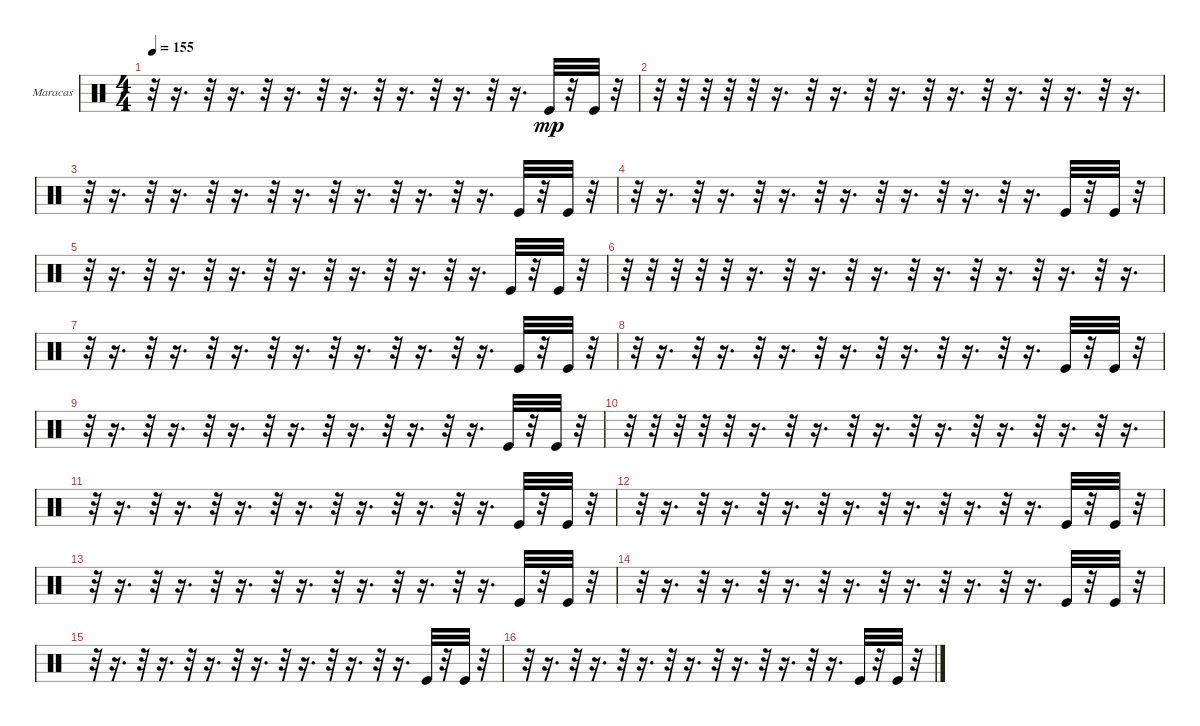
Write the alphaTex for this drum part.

\bracketExtendMode groupsimilarinstruments
\firstSystemTrackNameOrientation horizontal
\otherSystemsTrackNameOrientation horizontal
\track ("Е. Кулаков" "Maracas") {instrument percussion}
\staff {score}
\articulation defaults
\ts (4 4)
\tempo 155
\clef neutral
\ks c
r.32{dy mp} r.16{d} r.32 r.16{d} r.32 r.16{d} r.32 r.16{d} r.32 r.16{d} r.32 r.16{d} r.32 r.16{d} "Kick (hit)".32 r.32 "Kick (hit)".32 r.32 |
r.32 r.32 r.32 r.32 r.32 r.16{d} r.32 r.16{d} r.32 r.16{d} r.32 r.16{d} r.32 r.16{d} r.32 r.16{d} r.32 r.16{d} |
r.32 r.16{d} r.32 r.16{d} r.32 r.16{d} r.32 r.16{d} r.32 r.16{d} r.32 r.16{d} r.32 r.16{d} "Kick (hit)".32 r.32 "Kick (hit)".32 r.32 |
r.32 r.16{d} r.32 r.16{d} r.32 r.16{d} r.32 r.16{d} r.32 r.16{d} r.32 r.16{d} r.32 r.16{d} "Kick (hit)".32 r.32 "Kick (hit)".32 r.32 |
r.32 r.16{d} r.32 r.16{d} r.32 r.16{d} r.32 r.16{d} r.32 r.16{d} r.32 r.16{d} r.32 r.16{d} "Kick (hit)".32 r.32 "Kick (hit)".32 r.32 |
r.32 r.32 r.32 r.32 r.32 r.16{d} r.32 r.16{d} r.32 r.16{d} r.32 r.16{d} r.32 r.16{d} r.32 r.16{d} r.32 r.16{d} |
r.32 r.16{d} r.32 r.16{d} r.32 r.16{d} r.32 r.16{d} r.32 r.16{d} r.32 r.16{d} r.32 r.16{d} "Kick (hit)".32 r.32 "Kick (hit)".32 r.32 |
r.32 r.16{d} r.32 r.16{d} r.32 r.16{d} r.32 r.16{d} r.32 r.16{d} r.32 r.16{d} r.32 r.16{d} "Kick (hit)".32 r.32 "Kick (hit)".32 r.32 |
r.32 r.16{d} r.32 r.16{d} r.32 r.16{d} r.32 r.16{d} r.32 r.16{d} r.32 r.16{d} r.32 r.16{d} "Kick (hit)".32 r.32 "Kick (hit)".32 r.32 |
r.32 r.32 r.32 r.32 r.32 r.16{d} r.32 r.16{d} r.32 r.16{d} r.32 r.16{d} r.32 r.16{d} r.32 r.16{d} r.32 r.16{d} |
r.32 r.16{d} r.32 r.16{d} r.32 r.16{d} r.32 r.16{d} r.32 r.16{d} r.32 r.16{d} r.32 r.16{d} "Kick (hit)".32 r.32 "Kick (hit)".32 r.32 |
r.32 r.16{d} r.32 r.16{d} r.32 r.16{d} r.32 r.16{d} r.32 r.16{d} r.32 r.16{d} r.32 r.16{d} "Kick (hit)".32 r.32 "Kick (hit)".32 r.32 |
r.32 r.16{d} r.32 r.16{d} r.32 r.16{d} r.32 r.16{d} r.32 r.16{d} r.32 r.16{d} r.32 r.16{d} "Kick (hit)".32 r.32 "Kick (hit)".32 r.32 |
r.32 r.16{d} r.32 r.16{d} r.32 r.16{d} r.32 r.16{d} r.32 r.16{d} r.32 r.16{d} r.32 r.16{d} "Kick (hit)".32 r.32 "Kick (hit)".32 r.32 |
r.32 r.16{d} r.32 r.16{d} r.32 r.16{d} r.32 r.16{d} r.32 r.16{d} r.32 r.16{d} r.32 r.16{d} "Kick (hit)".32 r.32 "Kick (hit)".32 r.32 |
r.32 r.16{d} r.32 r.16{d} r.32 r.16{d} r.32 r.16{d} r.32 r.16{d} r.32 r.16{d} r.32 r.16{d} "Kick (hit)".32 r.32 "Kick (hit)".32 r.32
